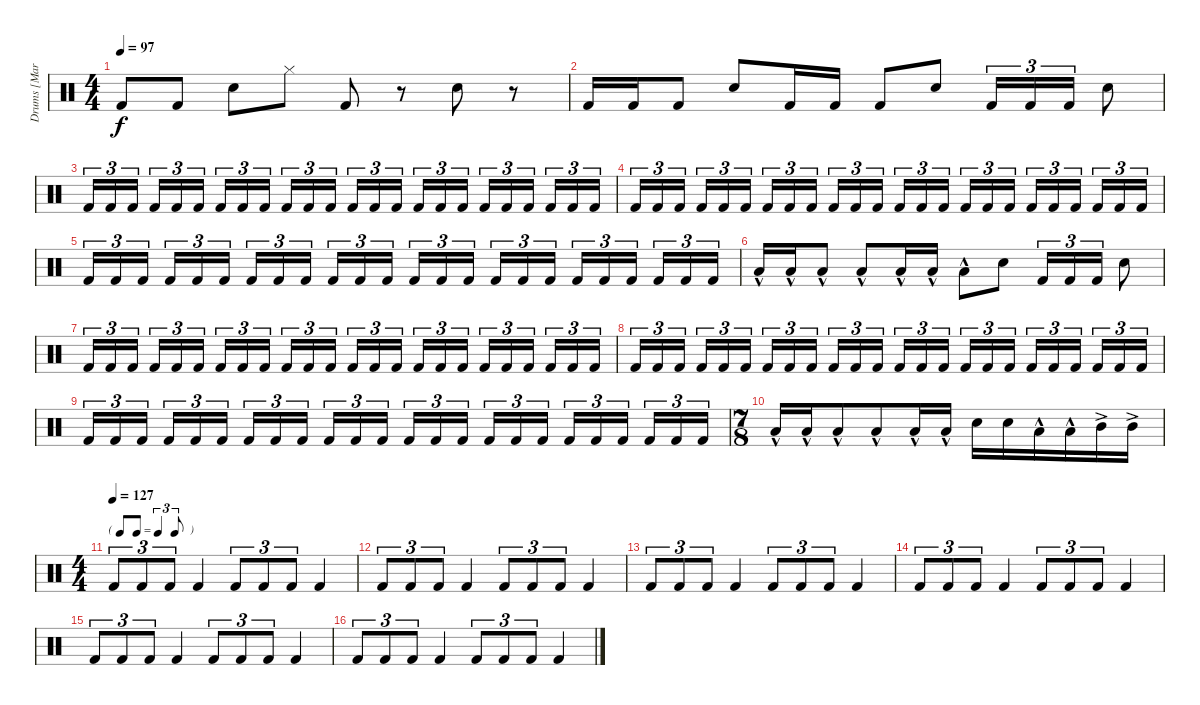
\track ("Drums [Martin Lopez]" "Drums [Mar") {instrument percussion}
\staff {score}
\articulation defaults
\ts (4 4)
\tempo 97
\clef neutral
\ks c "Kick (hit) 2".8{dy f} "Kick (hit) 2".8 "Snare (hit) 2".8 "Hi-Hat (closed)".8 "Kick (hit) 2".8
r.8 "Snare (hit) 2".8 r.8 |
"Kick (hit) 2".16 "Kick (hit) 2".16 "Kick (hit) 2".8 "Snare (hit) 2".8 "Kick (hit) 2".16 "Kick (hit) 2".16 "Kick (hit) 2".8 "Snare (hit) 2".8 "Kick (hit) 2".16{tu (3 2)} "Kick (hit) 2".16{tu (3 2)} "Kick (hit) 2".16{tu (3 2)} "Snare (hit) 2".8 |
"Kick (hit) 2".16{tu (3 2)} "Kick (hit) 2".16{tu (3 2)} "Kick (hit) 2".16{tu (3 2)} "Kick (hit) 2".16{tu (3 2)} "Kick (hit) 2".16{tu (3 2)} "Kick (hit) 2".16{tu (3 2)} "Kick (hit) 2".16{tu (3 2)} "Kick (hit) 2".16{tu (3 2)} "Kick (hit) 2".16{tu (3 2)} "Kick (hit) 2".16{tu (3 2)} "Kick (hit) 2".16{tu (3 2)} "Kick (hit) 2".16{tu (3 2)} "Kick (hit) 2".16{tu (3 2)} "Kick (hit) 2".16{tu (3 2)} "Kick (hit) 2".16{tu (3 2)} "Kick (hit) 2".16{tu (3 2)} "Kick (hit) 2".16{tu (3 2)} "Kick (hit) 2".16{tu (3 2)} "Kick (hit) 2".16{tu (3 2)} "Kick (hit) 2".16{tu (3 2)} "Kick (hit) 2".16{tu (3 2)} "Kick (hit) 2".16{tu (3 2)} "Kick (hit) 2".16{tu (3 2)} "Kick (hit) 2".16{tu (3 2)} |
"Kick (hit) 2".16{tu (3 2)} "Kick (hit) 2".16{tu (3 2)} "Kick (hit) 2".16{tu (3 2)} "Kick (hit) 2".16{tu (3 2)} "Kick (hit) 2".16{tu (3 2)} "Kick (hit) 2".16{tu (3 2)} "Kick (hit) 2".16{tu (3 2)} "Kick (hit) 2".16{tu (3 2)} "Kick (hit) 2".16{tu (3 2)} "Kick (hit) 2".16{tu (3 2)} "Kick (hit) 2".16{tu (3 2)} "Kick (hit) 2".16{tu (3 2)} "Kick (hit) 2".16{tu (3 2)} "Kick (hit) 2".16{tu (3 2)} "Kick (hit) 2".16{tu (3 2)} "Kick (hit) 2".16{tu (3 2)} "Kick (hit) 2".16{tu (3 2)} "Kick (hit) 2".16{tu (3 2)} "Kick (hit) 2".16{tu (3 2)} "Kick (hit) 2".16{tu (3 2)} "Kick (hit) 2".16{tu (3 2)} "Kick (hit) 2".16{tu (3 2)} "Kick (hit) 2".16{tu (3 2)} "Kick (hit) 2".16{tu (3 2)} |
"Kick (hit) 2".16{tu (3 2)} "Kick (hit) 2".16{tu (3 2)} "Kick (hit) 2".16{tu (3 2)} "Kick (hit) 2".16{tu (3 2)} "Kick (hit) 2".16{tu (3 2)} "Kick (hit) 2".16{tu (3 2)} "Kick (hit) 2".16{tu (3 2)} "Kick (hit) 2".16{tu (3 2)} "Kick (hit) 2".16{tu (3 2)} "Kick (hit) 2".16{tu (3 2)} "Kick (hit) 2".16{tu (3 2)} "Kick (hit) 2".16{tu (3 2)} "Kick (hit) 2".16{tu (3 2)} "Kick (hit) 2".16{tu (3 2)} "Kick (hit) 2".16{tu (3 2)} "Kick (hit) 2".16{tu (3 2)} "Kick (hit) 2".16{tu (3 2)} "Kick (hit) 2".16{tu (3 2)} "Kick (hit) 2".16{tu (3 2)} "Kick (hit) 2".16{tu (3 2)} "Kick (hit) 2".16{tu (3 2)} "Kick (hit) 2".16{tu (3 2)} "Kick (hit) 2".16{tu (3 2)} "Kick (hit) 2".16{tu (3 2)} |
"Low Floor Tom (hit)"{hac}.16 "Low Floor Tom (hit)"{hac}.16 "Low Floor Tom (hit)"{hac}.8 "Low Floor Tom (hit)"{hac}.8 "Low Floor Tom (hit)"{hac}.16 "Low Floor Tom (hit)"{hac}.16 "Low Floor Tom (hit)"{hac}.8 "Snare (hit) 2".8 "Kick (hit) 2".16{tu (3 2)} "Kick (hit) 2".16{tu (3 2)} "Kick (hit) 2".16{tu (3 2)} "Snare (hit) 2".8 |
"Kick (hit) 2".16{tu (3 2)} "Kick (hit) 2".16{tu (3 2)} "Kick (hit) 2".16{tu (3 2)} "Kick (hit) 2".16{tu (3 2)} "Kick (hit) 2".16{tu (3 2)} "Kick (hit) 2".16{tu (3 2)} "Kick (hit) 2".16{tu (3 2)} "Kick (hit) 2".16{tu (3 2)} "Kick (hit) 2".16{tu (3 2)} "Kick (hit) 2".16{tu (3 2)} "Kick (hit) 2".16{tu (3 2)} "Kick (hit) 2".16{tu (3 2)} "Kick (hit) 2".16{tu (3 2)} "Kick (hit) 2".16{tu (3 2)} "Kick (hit) 2".16{tu (3 2)} "Kick (hit) 2".16{tu (3 2)} "Kick (hit) 2".16{tu (3 2)} "Kick (hit) 2".16{tu (3 2)} "Kick (hit) 2".16{tu (3 2)} "Kick (hit) 2".16{tu (3 2)} "Kick (hit) 2".16{tu (3 2)} "Kick (hit) 2".16{tu (3 2)} "Kick (hit) 2".16{tu (3 2)} "Kick (hit) 2".16{tu (3 2)} |
"Kick (hit) 2".16{tu (3 2)} "Kick (hit) 2".16{tu (3 2)} "Kick (hit) 2".16{tu (3 2)} "Kick (hit) 2".16{tu (3 2)} "Kick (hit) 2".16{tu (3 2)} "Kick (hit) 2".16{tu (3 2)} "Kick (hit) 2".16{tu (3 2)} "Kick (hit) 2".16{tu (3 2)} "Kick (hit) 2".16{tu (3 2)} "Kick (hit) 2".16{tu (3 2)} "Kick (hit) 2".16{tu (3 2)} "Kick (hit) 2".16{tu (3 2)} "Kick (hit) 2".16{tu (3 2)} "Kick (hit) 2".16{tu (3 2)} "Kick (hit) 2".16{tu (3 2)} "Kick (hit) 2".16{tu (3 2)} "Kick (hit) 2".16{tu (3 2)} "Kick (hit) 2".16{tu (3 2)} "Kick (hit) 2".16{tu (3 2)} "Kick (hit) 2".16{tu (3 2)} "Kick (hit) 2".16{tu (3 2)} "Kick (hit) 2".16{tu (3 2)} "Kick (hit) 2".16{tu (3 2)} "Kick (hit) 2".16{tu (3 2)} |
"Kick (hit) 2".16{tu (3 2)} "Kick (hit) 2".16{tu (3 2)} "Kick (hit) 2".16{tu (3 2)} "Kick (hit) 2".16{tu (3 2)} "Kick (hit) 2".16{tu (3 2)} "Kick (hit) 2".16{tu (3 2)} "Kick (hit) 2".16{tu (3 2)} "Kick (hit) 2".16{tu (3 2)} "Kick (hit) 2".16{tu (3 2)} "Kick (hit) 2".16{tu (3 2)} "Kick (hit) 2".16{tu (3 2)} "Kick (hit) 2".16{tu (3 2)} "Kick (hit) 2".16{tu (3 2)} "Kick (hit) 2".16{tu (3 2)} "Kick (hit) 2".16{tu (3 2)} "Kick (hit) 2".16{tu (3 2)} "Kick (hit) 2".16{tu (3 2)} "Kick (hit) 2".16{tu (3 2)} "Kick (hit) 2".16{tu (3 2)} "Kick (hit) 2".16{tu (3 2)} "Kick (hit) 2".16{tu (3 2)} "Kick (hit) 2".16{tu (3 2)} "Kick (hit) 2".16{tu (3 2)} "Kick (hit) 2".16{tu (3 2)} |
\ts (7 8)
"Low Floor Tom (hit)"{hac}.16 "Low Floor Tom (hit)"{hac}.16 "Low Floor Tom (hit)"{hac}.8 "Low Floor Tom (hit)"{hac}.8 "Low Floor Tom (hit)"{hac}.16 "Low Floor Tom (hit)"{hac}.16 "Snare (hit) 2".16 "Snare (hit) 2".16 "Low Tom (hit)"{hac}.16 "Low Tom (hit)"{hac}.16 "Mid Tom (hit)"{ac}.16 "Mid Tom (hit)"{ac}.16 |
\ts (4 4)
\tf triplet8th
\tempo (127)
"Kick (hit) 2".8{tu (3 2)} "Kick (hit) 2".8{tu (3 2)} "Kick (hit) 2".8{tu (3 2)} "Kick (hit) 2".4 "Kick (hit) 2".8{tu (3 2)} "Kick (hit) 2".8{tu (3 2)} "Kick (hit) 2".8{tu (3 2)} "Kick (hit) 2".4 |
"Kick (hit) 2".8{tu (3 2)} "Kick (hit) 2".8{tu (3 2)} "Kick (hit) 2".8{tu (3 2)} "Kick (hit) 2".4 "Kick (hit) 2".8{tu (3 2)} "Kick (hit) 2".8{tu (3 2)} "Kick (hit) 2".8{tu (3 2)} "Kick (hit) 2".4 |
"Kick (hit) 2".8{tu (3 2)} "Kick (hit) 2".8{tu (3 2)} "Kick (hit) 2".8{tu (3 2)} "Kick (hit) 2".4 "Kick (hit) 2".8{tu (3 2)} "Kick (hit) 2".8{tu (3 2)} "Kick (hit) 2".8{tu (3 2)} "Kick (hit) 2".4 |
"Kick (hit) 2".8{tu (3 2)} "Kick (hit) 2".8{tu (3 2)} "Kick (hit) 2".8{tu (3 2)} "Kick (hit) 2".4 "Kick (hit) 2".8{tu (3 2)} "Kick (hit) 2".8{tu (3 2)} "Kick (hit) 2".8{tu (3 2)} "Kick (hit) 2".4 |
"Kick (hit) 2".8{tu (3 2)} "Kick (hit) 2".8{tu (3 2)} "Kick (hit) 2".8{tu (3 2)} "Kick (hit) 2".4 "Kick (hit) 2".8{tu (3 2)} "Kick (hit) 2".8{tu (3 2)} "Kick (hit) 2".8{tu (3 2)} "Kick (hit) 2".4 |
"Kick (hit) 2".8{tu (3 2)} "Kick (hit) 2".8{tu (3 2)} "Kick (hit) 2".8{tu (3 2)} "Kick (hit) 2".4 "Kick (hit) 2".8{tu (3 2)} "Kick (hit) 2".8{tu (3 2)} "Kick (hit) 2".8{tu (3 2)} "Kick (hit) 2".4
